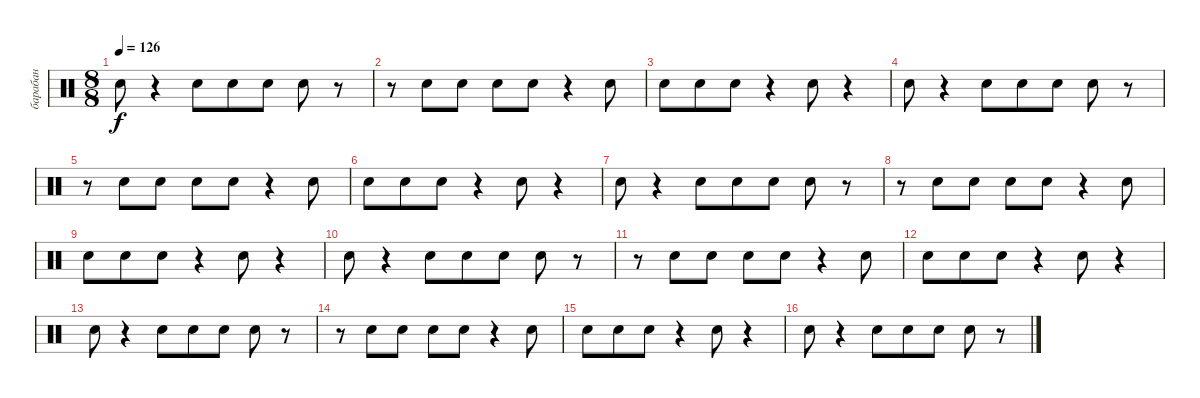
\track ("барабан" "барабан") {instrument percussion}
\staff {score}
\articulation defaults
\ts (8 8)
\tempo 126
\clef neutral
\ks c "Electric Snare (hit)".8{dy f}
r.4 "Electric Snare (hit)".8 "Electric Snare (hit)".8 "Electric Snare (hit)".8 "Electric Snare (hit)".8 r.8 |
r.8 "Electric Snare (hit)".8 "Electric Snare (hit)".8 "Electric Snare (hit)".8 "Electric Snare (hit)".8 r.4 "Electric Snare (hit)".8 |
"Electric Snare (hit)".8 "Electric Snare (hit)".8 "Electric Snare (hit)".8 r.4 "Electric Snare (hit)".8 r.4 |
"Electric Snare (hit)".8 r.4 "Electric Snare (hit)".8 "Electric Snare (hit)".8 "Electric Snare (hit)".8 "Electric Snare (hit)".8 r.8 |
r.8 "Electric Snare (hit)".8 "Electric Snare (hit)".8 "Electric Snare (hit)".8 "Electric Snare (hit)".8 r.4 "Electric Snare (hit)".8 |
"Electric Snare (hit)".8 "Electric Snare (hit)".8 "Electric Snare (hit)".8 r.4 "Electric Snare (hit)".8 r.4 |
"Electric Snare (hit)".8 r.4 "Electric Snare (hit)".8 "Electric Snare (hit)".8 "Electric Snare (hit)".8 "Electric Snare (hit)".8 r.8 |
r.8 "Electric Snare (hit)".8 "Electric Snare (hit)".8 "Electric Snare (hit)".8 "Electric Snare (hit)".8 r.4 "Electric Snare (hit)".8 |
"Electric Snare (hit)".8 "Electric Snare (hit)".8 "Electric Snare (hit)".8 r.4 "Electric Snare (hit)".8 r.4 |
"Electric Snare (hit)".8 r.4 "Electric Snare (hit)".8 "Electric Snare (hit)".8 "Electric Snare (hit)".8 "Electric Snare (hit)".8 r.8 |
r.8 "Electric Snare (hit)".8 "Electric Snare (hit)".8 "Electric Snare (hit)".8 "Electric Snare (hit)".8 r.4 "Electric Snare (hit)".8 |
"Electric Snare (hit)".8 "Electric Snare (hit)".8 "Electric Snare (hit)".8 r.4 "Electric Snare (hit)".8 r.4 |
"Electric Snare (hit)".8 r.4 "Electric Snare (hit)".8 "Electric Snare (hit)".8 "Electric Snare (hit)".8 "Electric Snare (hit)".8 r.8 |
r.8 "Electric Snare (hit)".8 "Electric Snare (hit)".8 "Electric Snare (hit)".8 "Electric Snare (hit)".8 r.4 "Electric Snare (hit)".8 |
"Electric Snare (hit)".8 "Electric Snare (hit)".8 "Electric Snare (hit)".8 r.4 "Electric Snare (hit)".8 r.4 |
"Electric Snare (hit)".8 r.4 "Electric Snare (hit)".8 "Electric Snare (hit)".8 "Electric Snare (hit)".8 "Electric Snare (hit)".8 r.8
